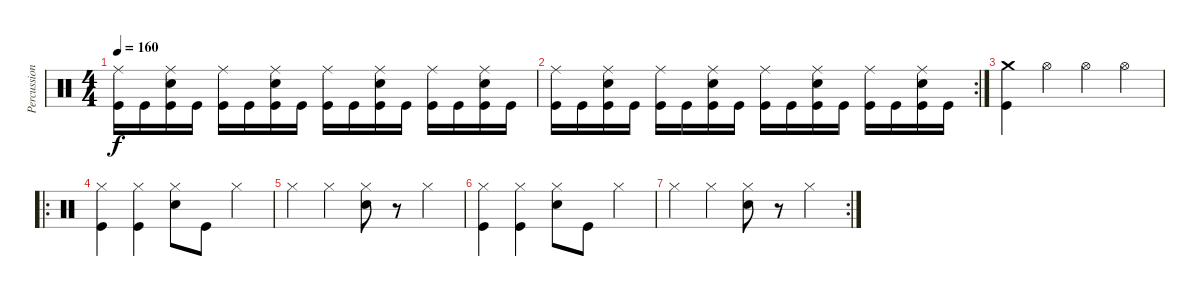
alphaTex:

\track ("Percussion" "Percussion") {instrument percussion}
\staff {score}
\articulation defaults
\ts (4 4)
\tempo 160
\clef neutral
\ks c
("Ride (middle)" "Kick (hit)").16{dy f} "Kick (hit)".16 ("Ride (middle)" "Snare (hit) 2" "Kick (hit)").16 "Kick (hit)".16 ("Ride (middle)" "Kick (hit)").16 "Kick (hit)".16 ("Ride (middle)" "Snare (hit) 2" "Kick (hit)").16 "Kick (hit)".16 ("Ride (middle)" "Kick (hit)").16 "Kick (hit)".16 ("Ride (middle)" "Snare (hit) 2" "Kick (hit)").16 "Kick (hit)".16 ("Ride (middle)" "Kick (hit)").16 "Kick (hit)".16 ("Ride (middle)" "Snare (hit) 2" "Kick (hit)").16 "Kick (hit)".16 |
\rc 2
("Ride (middle)" "Kick (hit)").16 "Kick (hit)".16 ("Ride (middle)" "Snare (hit) 2" "Kick (hit)").16 "Kick (hit)".16 ("Ride (middle)" "Kick (hit)").16 "Kick (hit)".16 ("Ride (middle)" "Snare (hit) 2" "Kick (hit)").16 "Kick (hit)".16 ("Ride (middle)" "Kick (hit)").16 "Kick (hit)".16 ("Ride (middle)" "Snare (hit) 2" "Kick (hit)").16 "Kick (hit)".16 ("Ride (middle)" "Kick (hit)").16 "Kick (hit)".16 ("Ride (middle)" "Snare (hit) 2" "Kick (hit)").16 "Kick (hit)".16 |
("Crash medium (hit)" "Kick (hit)").4 "Hi-Hat (open)".4 "Hi-Hat (open)".4 "Hi-Hat (open)".4 |
\ro
("Hi-Hat (closed)" "Kick (hit)").4 ("Hi-Hat (closed)" "Kick (hit)").4 ("Hi-Hat (closed)" "Snare (hit) 2").8 "Kick (hit)".8 "Hi-Hat (closed)".4 |
"Hi-Hat (closed)".4 "Hi-Hat (closed)".4 ("Hi-Hat (closed)" "Snare (hit) 2").8 r.8 "Hi-Hat (closed)".4 |
("Hi-Hat (closed)" "Kick (hit)").4 ("Hi-Hat (closed)" "Kick (hit)").4 ("Hi-Hat (closed)" "Snare (hit) 2").8 "Kick (hit)".8 "Hi-Hat (closed)".4 |
\rc 2 "Hi-Hat (closed)".4 "Hi-Hat (closed)".4
("Hi-Hat (closed)" "Snare (hit) 2").8 r.8 "Hi-Hat (closed)".4
